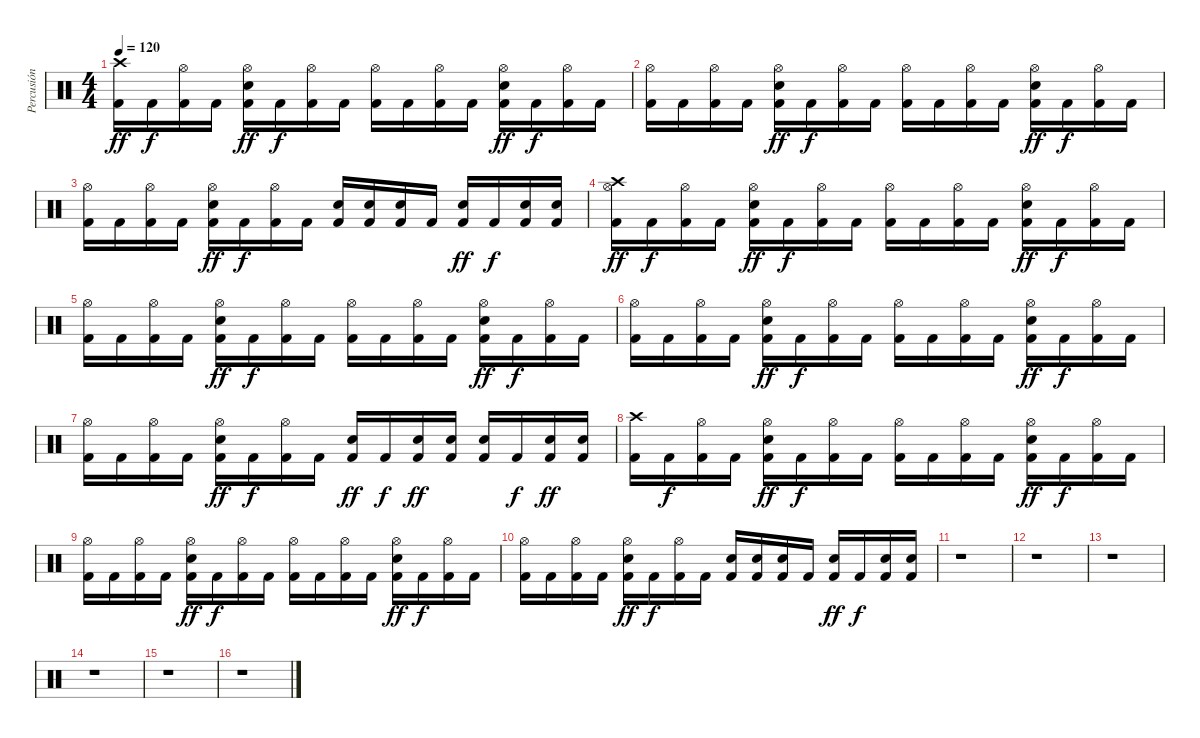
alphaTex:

\track ("Percusión" "Percusión") {instrument percussion}
\staff {score}
\articulation defaults
\ts (4 4)
\tempo 120
\clef neutral
\ks c
("Crash high (hit)" "Kick (hit) 2").16{dy ff} "Kick (hit) 2".16{dy f} ("Hi-Hat (open)" "Kick (hit) 2").16 "Kick (hit) 2".16 ("Hi-Hat (open)" "Electric Snare (hit)" "Kick (hit) 2").16{dy ff} "Kick (hit) 2".16{dy f} ("Hi-Hat (open)" "Kick (hit) 2").16 "Kick (hit) 2".16 ("Hi-Hat (open)" "Kick (hit) 2").16 "Kick (hit) 2".16 ("Hi-Hat (open)" "Kick (hit) 2").16 "Kick (hit) 2".16 ("Hi-Hat (open)" "Electric Snare (hit)" "Kick (hit) 2").16{dy ff} "Kick (hit) 2".16{dy f} ("Hi-Hat (open)" "Kick (hit) 2").16 "Kick (hit) 2".16 |
("Hi-Hat (open)" "Kick (hit) 2").16 "Kick (hit) 2".16 ("Hi-Hat (open)" "Kick (hit) 2").16 "Kick (hit) 2".16 ("Hi-Hat (open)" "Electric Snare (hit)" "Kick (hit) 2").16{dy ff} "Kick (hit) 2".16{dy f} ("Hi-Hat (open)" "Kick (hit) 2").16 "Kick (hit) 2".16 ("Hi-Hat (open)" "Kick (hit) 2").16 "Kick (hit) 2".16 ("Hi-Hat (open)" "Kick (hit) 2").16 "Kick (hit) 2".16 ("Hi-Hat (open)" "Electric Snare (hit)" "Kick (hit) 2").16{dy ff} "Kick (hit) 2".16{dy f} ("Hi-Hat (open)" "Kick (hit) 2").16 "Kick (hit) 2".16 |
("Hi-Hat (open)" "Kick (hit) 2").16 "Kick (hit) 2".16 ("Hi-Hat (open)" "Kick (hit) 2").16 "Kick (hit) 2".16 ("Hi-Hat (open)" "Electric Snare (hit)" "Kick (hit) 2").16{dy ff} "Kick (hit) 2".16{dy f} ("Hi-Hat (open)" "Kick (hit) 2").16 "Kick (hit) 2".16 ("Electric Snare (hit)" "Kick (hit) 2").16 ("Electric Snare (hit)" "Kick (hit) 2").16 ("Electric Snare (hit)" "Kick (hit) 2").16 "Kick (hit) 2".16 ("Electric Snare (hit)" "Kick (hit) 2").16{dy ff} "Kick (hit) 2".16{dy f} ("Electric Snare (hit)" "Kick (hit) 2").16 ("Electric Snare (hit)" "Kick (hit) 2").16 |
("Hi-Hat (open)" "Crash high (hit)" "Kick (hit) 2").16{dy ff} "Kick (hit) 2".16{dy f} ("Hi-Hat (open)" "Kick (hit) 2").16 "Kick (hit) 2".16 ("Hi-Hat (open)" "Electric Snare (hit)" "Kick (hit) 2").16{dy ff} "Kick (hit) 2".16{dy f} ("Hi-Hat (open)" "Kick (hit) 2").16 "Kick (hit) 2".16 ("Hi-Hat (open)" "Kick (hit) 2").16 "Kick (hit) 2".16 ("Hi-Hat (open)" "Kick (hit) 2").16 "Kick (hit) 2".16 ("Hi-Hat (open)" "Electric Snare (hit)" "Kick (hit) 2").16{dy ff} "Kick (hit) 2".16{dy f} ("Hi-Hat (open)" "Kick (hit) 2").16 "Kick (hit) 2".16 |
("Hi-Hat (open)" "Kick (hit) 2").16 "Kick (hit) 2".16 ("Hi-Hat (open)" "Kick (hit) 2").16 "Kick (hit) 2".16 ("Hi-Hat (open)" "Electric Snare (hit)" "Kick (hit) 2").16{dy ff} "Kick (hit) 2".16{dy f} ("Hi-Hat (open)" "Kick (hit) 2").16 "Kick (hit) 2".16 ("Hi-Hat (open)" "Kick (hit) 2").16 "Kick (hit) 2".16 ("Hi-Hat (open)" "Kick (hit) 2").16 "Kick (hit) 2".16 ("Hi-Hat (open)" "Electric Snare (hit)" "Kick (hit) 2").16{dy ff} "Kick (hit) 2".16{dy f} ("Hi-Hat (open)" "Kick (hit) 2").16 "Kick (hit) 2".16 |
("Hi-Hat (open)" "Kick (hit) 2").16 "Kick (hit) 2".16 ("Hi-Hat (open)" "Kick (hit) 2").16 "Kick (hit) 2".16 ("Hi-Hat (open)" "Electric Snare (hit)" "Kick (hit) 2").16{dy ff} "Kick (hit) 2".16{dy f} ("Hi-Hat (open)" "Kick (hit) 2").16 "Kick (hit) 2".16 ("Hi-Hat (open)" "Kick (hit) 2").16 "Kick (hit) 2".16 ("Hi-Hat (open)" "Kick (hit) 2").16 "Kick (hit) 2".16 ("Hi-Hat (open)" "Electric Snare (hit)" "Kick (hit) 2").16{dy ff} "Kick (hit) 2".16{dy f} ("Hi-Hat (open)" "Kick (hit) 2").16 "Kick (hit) 2".16 |
("Hi-Hat (open)" "Kick (hit) 2").16 "Kick (hit) 2".16 ("Hi-Hat (open)" "Kick (hit) 2").16 "Kick (hit) 2".16 ("Hi-Hat (open)" "Electric Snare (hit)" "Kick (hit) 2").16{dy ff} "Kick (hit) 2".16{dy f} ("Hi-Hat (open)" "Kick (hit) 2").16 "Kick (hit) 2".16 ("Electric Snare (hit)" "Kick (hit) 2").16{dy ff} "Kick (hit) 2".16{dy f} ("Electric Snare (hit)" "Kick (hit) 2").16{dy ff} ("Electric Snare (hit)" "Kick (hit) 2").16 ("Electric Snare (hit)" "Kick (hit) 2").16 "Kick (hit) 2".16{dy f} ("Electric Snare (hit)" "Kick (hit) 2").16{dy ff} ("Electric Snare (hit)" "Kick (hit) 2").16 |
("Crash high (hit)" "Kick (hit) 2").16 "Kick (hit) 2".16{dy f} ("Hi-Hat (open)" "Kick (hit) 2").16 "Kick (hit) 2".16 ("Hi-Hat (open)" "Electric Snare (hit)" "Kick (hit) 2").16{dy ff} "Kick (hit) 2".16{dy f} ("Hi-Hat (open)" "Kick (hit) 2").16 "Kick (hit) 2".16 ("Hi-Hat (open)" "Kick (hit) 2").16 "Kick (hit) 2".16 ("Hi-Hat (open)" "Kick (hit) 2").16 "Kick (hit) 2".16 ("Hi-Hat (open)" "Electric Snare (hit)" "Kick (hit) 2").16{dy ff} "Kick (hit) 2".16{dy f} ("Hi-Hat (open)" "Kick (hit) 2").16 "Kick (hit) 2".16 |
("Hi-Hat (open)" "Kick (hit) 2").16 "Kick (hit) 2".16 ("Hi-Hat (open)" "Kick (hit) 2").16 "Kick (hit) 2".16 ("Hi-Hat (open)" "Electric Snare (hit)" "Kick (hit) 2").16{dy ff} "Kick (hit) 2".16{dy f} ("Hi-Hat (open)" "Kick (hit) 2").16 "Kick (hit) 2".16 ("Hi-Hat (open)" "Kick (hit) 2").16 "Kick (hit) 2".16 ("Hi-Hat (open)" "Kick (hit) 2").16 "Kick (hit) 2".16 ("Hi-Hat (open)" "Electric Snare (hit)" "Kick (hit) 2").16{dy ff} "Kick (hit) 2".16{dy f} ("Hi-Hat (open)" "Kick (hit) 2").16 "Kick (hit) 2".16 |
("Hi-Hat (open)" "Kick (hit) 2").16 "Kick (hit) 2".16 ("Hi-Hat (open)" "Kick (hit) 2").16 "Kick (hit) 2".16 ("Hi-Hat (open)" "Electric Snare (hit)" "Kick (hit) 2").16{dy ff} "Kick (hit) 2".16{dy f} ("Hi-Hat (open)" "Kick (hit) 2").16 "Kick (hit) 2".16 ("Electric Snare (hit)" "Kick (hit) 2").16 ("Electric Snare (hit)" "Kick (hit) 2").16 ("Electric Snare (hit)" "Kick (hit) 2").16 "Kick (hit) 2".16 ("Electric Snare (hit)" "Kick (hit) 2").16{dy ff} "Kick (hit) 2".16{dy f} ("Electric Snare (hit)" "Kick (hit) 2").16 ("Electric Snare (hit)" "Kick (hit) 2").16 |
r.1 |
r.1 |
r.1 |
r.1 |
r.1 |
r.1
